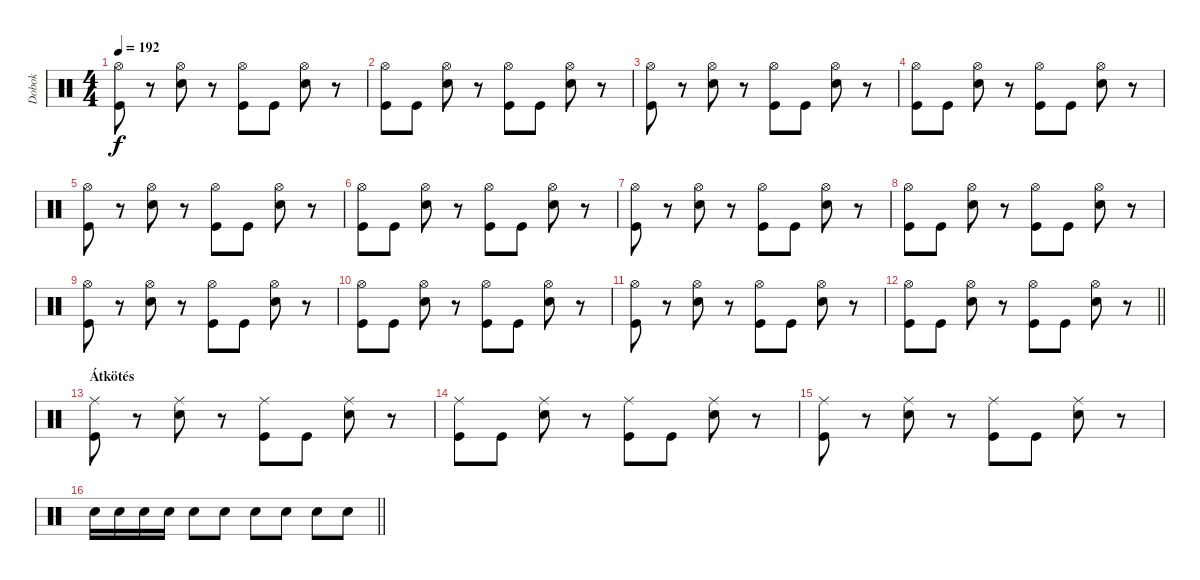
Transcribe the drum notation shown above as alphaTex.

\track ("Dobok" "Dobok") {instrument percussion}
\staff {score}
\articulation defaults
\ts (4 4)
\tempo 192
\clef neutral
\ks c
("Hi-Hat (open)" "Kick (hit)").8{dy f} r.8 ("Hi-Hat (open)" "Electric Snare (hit)").8 r.8 ("Hi-Hat (open)" "Kick (hit)").8 "Kick (hit)".8 ("Hi-Hat (open)" "Electric Snare (hit)").8 r.8 |
("Hi-Hat (open)" "Kick (hit)").8 "Kick (hit)".8 ("Hi-Hat (open)" "Electric Snare (hit)").8 r.8 ("Hi-Hat (open)" "Kick (hit)").8 "Kick (hit)".8 ("Hi-Hat (open)" "Electric Snare (hit)").8 r.8 |
("Hi-Hat (open)" "Kick (hit)").8 r.8 ("Hi-Hat (open)" "Electric Snare (hit)").8 r.8 ("Hi-Hat (open)" "Kick (hit)").8 "Kick (hit)".8 ("Hi-Hat (open)" "Electric Snare (hit)").8 r.8 |
("Hi-Hat (open)" "Kick (hit)").8 "Kick (hit)".8 ("Hi-Hat (open)" "Electric Snare (hit)").8 r.8 ("Hi-Hat (open)" "Kick (hit)").8 "Kick (hit)".8 ("Hi-Hat (open)" "Electric Snare (hit)").8 r.8 |
("Hi-Hat (open)" "Kick (hit)").8 r.8 ("Hi-Hat (open)" "Electric Snare (hit)").8 r.8 ("Hi-Hat (open)" "Kick (hit)").8 "Kick (hit)".8 ("Hi-Hat (open)" "Electric Snare (hit)").8 r.8 |
("Hi-Hat (open)" "Kick (hit)").8 "Kick (hit)".8 ("Hi-Hat (open)" "Electric Snare (hit)").8 r.8 ("Hi-Hat (open)" "Kick (hit)").8 "Kick (hit)".8 ("Hi-Hat (open)" "Electric Snare (hit)").8 r.8 |
("Hi-Hat (open)" "Kick (hit)").8 r.8 ("Hi-Hat (open)" "Electric Snare (hit)").8 r.8 ("Hi-Hat (open)" "Kick (hit)").8 "Kick (hit)".8 ("Hi-Hat (open)" "Electric Snare (hit)").8 r.8 |
("Hi-Hat (open)" "Kick (hit)").8 "Kick (hit)".8 ("Hi-Hat (open)" "Electric Snare (hit)").8 r.8 ("Hi-Hat (open)" "Kick (hit)").8 "Kick (hit)".8 ("Hi-Hat (open)" "Electric Snare (hit)").8 r.8 |
("Hi-Hat (open)" "Kick (hit)").8 r.8 ("Hi-Hat (open)" "Electric Snare (hit)").8 r.8 ("Hi-Hat (open)" "Kick (hit)").8 "Kick (hit)".8 ("Hi-Hat (open)" "Electric Snare (hit)").8 r.8 |
("Hi-Hat (open)" "Kick (hit)").8 "Kick (hit)".8 ("Hi-Hat (open)" "Electric Snare (hit)").8 r.8 ("Hi-Hat (open)" "Kick (hit)").8 "Kick (hit)".8 ("Hi-Hat (open)" "Electric Snare (hit)").8 r.8 |
("Hi-Hat (open)" "Kick (hit)").8 r.8 ("Hi-Hat (open)" "Electric Snare (hit)").8 r.8 ("Hi-Hat (open)" "Kick (hit)").8 "Kick (hit)".8 ("Hi-Hat (open)" "Electric Snare (hit)").8 r.8 |
\barLineRight lightlight
("Hi-Hat (open)" "Kick (hit)").8 "Kick (hit)".8 ("Hi-Hat (open)" "Electric Snare (hit)").8 r.8 ("Hi-Hat (open)" "Kick (hit)").8 "Kick (hit)".8 ("Hi-Hat (open)" "Electric Snare (hit)").8 r.8 |
\section ("" "Átkötés")
("Ride (middle)" "Kick (hit)").8 r.8 ("Ride (middle)" "Electric Snare (hit)").8 r.8 ("Ride (middle)" "Kick (hit)").8 "Kick (hit)".8 ("Ride (middle)" "Electric Snare (hit)").8 r.8 |
("Ride (middle)" "Kick (hit)").8 "Kick (hit)".8 ("Ride (middle)" "Electric Snare (hit)").8 r.8 ("Ride (middle)" "Kick (hit)").8 "Kick (hit)".8 ("Ride (middle)" "Electric Snare (hit)").8 r.8 |
("Ride (middle)" "Kick (hit)").8 r.8 ("Ride (middle)" "Electric Snare (hit)").8 r.8 ("Ride (middle)" "Kick (hit)").8 "Kick (hit)".8 ("Ride (middle)" "Electric Snare (hit)").8 r.8 |
\barLineRight lightlight "Electric Snare (hit)".16 "Electric Snare (hit)".16 "Electric Snare (hit)".16 "Electric Snare (hit)".16 "Electric Snare (hit)".8 "Electric Snare (hit)".8 "Electric Snare (hit)".8 "Electric Snare (hit)".8 "Electric Snare (hit)".8 "Electric Snare (hit)".8
